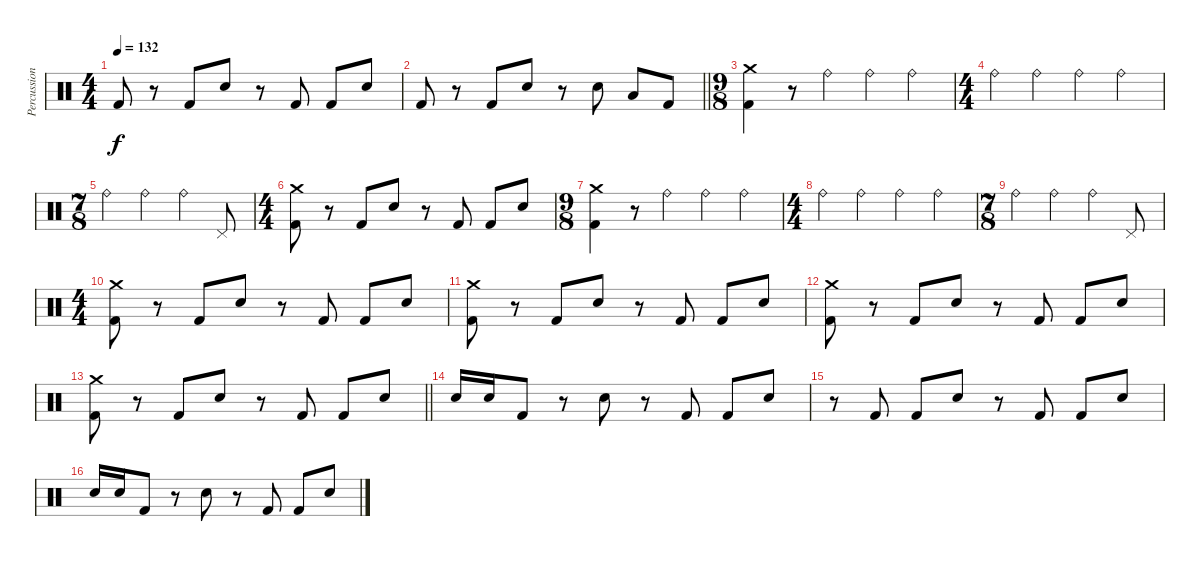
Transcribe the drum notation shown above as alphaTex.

\track ("Percussion" "Percussion") {instrument percussion}
\staff {score}
\articulation defaults
\ts (4 4)
\tempo 132
\clef neutral
\ks c "Kick (hit) 2".8{dy f}
r.8 "Kick (hit) 2".8 "Snare (hit) 2".8 r.8 "Kick (hit) 2".8 "Kick (hit) 2".8 "Snare (hit) 2".8 |
\barLineRight lightlight "Kick (hit) 2".8
r.8 "Kick (hit) 2".8 "Snare (hit) 2".8 r.8 "Snare (hit) 2".8 "Low Tom (hit)".8 "Kick (hit) 2".8 |
\ts (9 8)
("Crash medium (hit)" "Kick (hit) 2").4 r.8 "Ride (bell)".4 "Ride (bell)".4 "Ride (bell)".4 |
\ts (4 4)
"Ride (bell)".4 "Ride (bell)".4 "Ride (bell)".4 "Ride (bell)".4 |
\ts (7 8)
"Ride (bell)".4 "Ride (bell)".4 "Ride (bell)".4 "Pedal Hi-Hat (hit)".8 |
\ts (4 4)
("Crash medium (hit)" "Kick (hit) 2").8 r.8 "Kick (hit) 2".8 "Snare (hit) 2".8 r.8 "Kick (hit) 2".8 "Kick (hit) 2".8 "Snare (hit) 2".8 |
\ts (9 8)
("Crash medium (hit)" "Kick (hit) 2").4 r.8 "Ride (bell)".4 "Ride (bell)".4 "Ride (bell)".4 |
\ts (4 4)
"Ride (bell)".4 "Ride (bell)".4 "Ride (bell)".4 "Ride (bell)".4 |
\ts (7 8)
"Ride (bell)".4 "Ride (bell)".4 "Ride (bell)".4 "Pedal Hi-Hat (hit)".8 |
\ts (4 4)
("Crash medium (hit)" "Kick (hit) 2").8 r.8 "Kick (hit) 2".8 "Snare (hit) 2".8 r.8 "Kick (hit) 2".8 "Kick (hit) 2".8 "Snare (hit) 2".8 |
("Crash medium (hit)" "Kick (hit) 2").8 r.8 "Kick (hit) 2".8 "Snare (hit) 2".8 r.8 "Kick (hit) 2".8 "Kick (hit) 2".8 "Snare (hit) 2".8 |
("Crash medium (hit)" "Kick (hit) 2").8 r.8 "Kick (hit) 2".8 "Snare (hit) 2".8 r.8 "Kick (hit) 2".8 "Kick (hit) 2".8 "Snare (hit) 2".8 |
\barLineRight lightlight
("Crash medium (hit)" "Kick (hit) 2").8 r.8 "Kick (hit) 2".8 "Snare (hit) 2".8 r.8 "Kick (hit) 2".8 "Kick (hit) 2".8 "Snare (hit) 2".8 |
"Snare (hit) 2".16 "Snare (hit) 2".16 "Kick (hit) 2".8 r.8 "Snare (hit) 2".8 r.8 "Kick (hit) 2".8 "Kick (hit) 2".8 "Snare (hit) 2".8 |
r.8 "Kick (hit) 2".8 "Kick (hit) 2".8 "Snare (hit) 2".8 r.8 "Kick (hit) 2".8 "Kick (hit) 2".8 "Snare (hit) 2".8 |
"Snare (hit) 2".16 "Snare (hit) 2".16 "Kick (hit) 2".8 r.8 "Snare (hit) 2".8 r.8 "Kick (hit) 2".8 "Kick (hit) 2".8 "Snare (hit) 2".8
